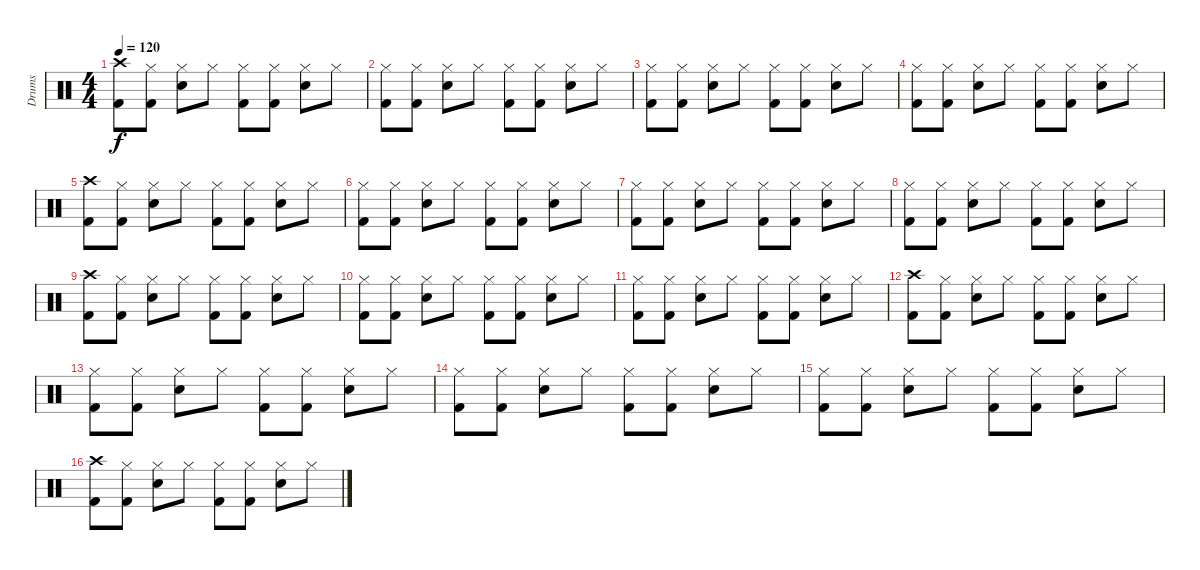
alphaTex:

\track ("Drums" "Drums") {instrument percussion}
\staff {score}
\articulation defaults
\ts (4 4)
\tempo 120
\clef neutral
\ks c
("Crash high (hit)" "Kick (hit) 2").8{dy f} ("Hi-Hat (closed)" "Kick (hit) 2").8 ("Hi-Hat (closed)" "Electric Snare (hit)").8 "Hi-Hat (closed)".8 ("Hi-Hat (closed)" "Kick (hit) 2").8 ("Hi-Hat (closed)" "Kick (hit) 2").8 ("Hi-Hat (closed)" "Electric Snare (hit)").8 "Hi-Hat (closed)".8 |
("Hi-Hat (closed)" "Kick (hit) 2").8 ("Hi-Hat (closed)" "Kick (hit) 2").8 ("Hi-Hat (closed)" "Electric Snare (hit)").8 "Hi-Hat (closed)".8 ("Hi-Hat (closed)" "Kick (hit) 2").8 ("Hi-Hat (closed)" "Kick (hit) 2").8 ("Hi-Hat (closed)" "Electric Snare (hit)").8 "Hi-Hat (closed)".8 |
("Hi-Hat (closed)" "Kick (hit) 2").8 ("Hi-Hat (closed)" "Kick (hit) 2").8 ("Hi-Hat (closed)" "Electric Snare (hit)").8 "Hi-Hat (closed)".8 ("Hi-Hat (closed)" "Kick (hit) 2").8 ("Hi-Hat (closed)" "Kick (hit) 2").8 ("Hi-Hat (closed)" "Electric Snare (hit)").8 "Hi-Hat (closed)".8 |
("Hi-Hat (closed)" "Kick (hit) 2").8 ("Hi-Hat (closed)" "Kick (hit) 2").8 ("Hi-Hat (closed)" "Electric Snare (hit)").8 "Hi-Hat (closed)".8 ("Hi-Hat (closed)" "Kick (hit) 2").8 ("Hi-Hat (closed)" "Kick (hit) 2").8 ("Hi-Hat (closed)" "Electric Snare (hit)").8 "Hi-Hat (closed)".8 |
("Crash high (hit)" "Kick (hit) 2").8 ("Hi-Hat (closed)" "Kick (hit) 2").8 ("Hi-Hat (closed)" "Electric Snare (hit)").8 "Hi-Hat (closed)".8 ("Hi-Hat (closed)" "Kick (hit) 2").8 ("Hi-Hat (closed)" "Kick (hit) 2").8 ("Hi-Hat (closed)" "Electric Snare (hit)").8 "Hi-Hat (closed)".8 |
("Hi-Hat (closed)" "Kick (hit) 2").8 ("Hi-Hat (closed)" "Kick (hit) 2").8 ("Hi-Hat (closed)" "Electric Snare (hit)").8 "Hi-Hat (closed)".8 ("Hi-Hat (closed)" "Kick (hit) 2").8 ("Hi-Hat (closed)" "Kick (hit) 2").8 ("Hi-Hat (closed)" "Electric Snare (hit)").8 "Hi-Hat (closed)".8 |
("Hi-Hat (closed)" "Kick (hit) 2").8 ("Hi-Hat (closed)" "Kick (hit) 2").8 ("Hi-Hat (closed)" "Electric Snare (hit)").8 "Hi-Hat (closed)".8 ("Hi-Hat (closed)" "Kick (hit) 2").8 ("Hi-Hat (closed)" "Kick (hit) 2").8 ("Hi-Hat (closed)" "Electric Snare (hit)").8 "Hi-Hat (closed)".8 |
("Hi-Hat (closed)" "Kick (hit) 2").8 ("Hi-Hat (closed)" "Kick (hit) 2").8 ("Hi-Hat (closed)" "Electric Snare (hit)").8 "Hi-Hat (closed)".8 ("Hi-Hat (closed)" "Kick (hit) 2").8 ("Hi-Hat (closed)" "Kick (hit) 2").8 ("Hi-Hat (closed)" "Electric Snare (hit)").8 "Hi-Hat (closed)".8 |
("Crash high (hit)" "Kick (hit) 2").8 ("Hi-Hat (closed)" "Kick (hit) 2").8 ("Hi-Hat (closed)" "Electric Snare (hit)").8 "Hi-Hat (closed)".8 ("Hi-Hat (closed)" "Kick (hit) 2").8 ("Hi-Hat (closed)" "Kick (hit) 2").8 ("Hi-Hat (closed)" "Electric Snare (hit)").8 "Hi-Hat (closed)".8 |
("Hi-Hat (closed)" "Kick (hit) 2").8 ("Hi-Hat (closed)" "Kick (hit) 2").8 ("Hi-Hat (closed)" "Electric Snare (hit)").8 "Hi-Hat (closed)".8 ("Hi-Hat (closed)" "Kick (hit) 2").8 ("Hi-Hat (closed)" "Kick (hit) 2").8 ("Hi-Hat (closed)" "Electric Snare (hit)").8 "Hi-Hat (closed)".8 |
("Hi-Hat (closed)" "Kick (hit) 2").8 ("Hi-Hat (closed)" "Kick (hit) 2").8 ("Hi-Hat (closed)" "Electric Snare (hit)").8 "Hi-Hat (closed)".8 ("Hi-Hat (closed)" "Kick (hit) 2").8 ("Hi-Hat (closed)" "Kick (hit) 2").8 ("Hi-Hat (closed)" "Electric Snare (hit)").8 "Hi-Hat (closed)".8 |
("Crash high (hit)" "Kick (hit) 2").8 ("Hi-Hat (closed)" "Kick (hit) 2").8 ("Hi-Hat (closed)" "Electric Snare (hit)").8 "Hi-Hat (closed)".8 ("Hi-Hat (closed)" "Kick (hit) 2").8 ("Hi-Hat (closed)" "Kick (hit) 2").8 ("Hi-Hat (closed)" "Electric Snare (hit)").8 "Hi-Hat (closed)".8 |
("Hi-Hat (closed)" "Kick (hit) 2").8 ("Hi-Hat (closed)" "Kick (hit) 2").8 ("Hi-Hat (closed)" "Electric Snare (hit)").8 "Hi-Hat (closed)".8 ("Hi-Hat (closed)" "Kick (hit) 2").8 ("Hi-Hat (closed)" "Kick (hit) 2").8 ("Hi-Hat (closed)" "Electric Snare (hit)").8 "Hi-Hat (closed)".8 |
("Hi-Hat (closed)" "Kick (hit) 2").8 ("Hi-Hat (closed)" "Kick (hit) 2").8 ("Hi-Hat (closed)" "Electric Snare (hit)").8 "Hi-Hat (closed)".8 ("Hi-Hat (closed)" "Kick (hit) 2").8 ("Hi-Hat (closed)" "Kick (hit) 2").8 ("Hi-Hat (closed)" "Electric Snare (hit)").8 "Hi-Hat (closed)".8 |
("Hi-Hat (closed)" "Kick (hit) 2").8 ("Hi-Hat (closed)" "Kick (hit) 2").8 ("Hi-Hat (closed)" "Electric Snare (hit)").8 "Hi-Hat (closed)".8 ("Hi-Hat (closed)" "Kick (hit) 2").8 ("Hi-Hat (closed)" "Kick (hit) 2").8 ("Hi-Hat (closed)" "Electric Snare (hit)").8 "Hi-Hat (closed)".8 |
("Crash high (hit)" "Kick (hit) 2").8 ("Hi-Hat (closed)" "Kick (hit) 2").8 ("Hi-Hat (closed)" "Electric Snare (hit)").8 "Hi-Hat (closed)".8 ("Hi-Hat (closed)" "Kick (hit) 2").8 ("Hi-Hat (closed)" "Kick (hit) 2").8 ("Hi-Hat (closed)" "Electric Snare (hit)").8 "Hi-Hat (closed)".8
